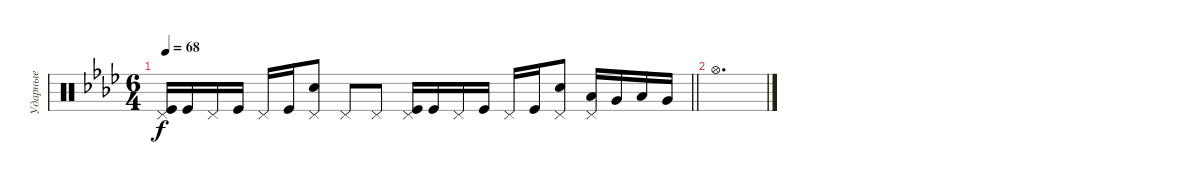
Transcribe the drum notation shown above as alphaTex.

\track ("Ударные" "Ударные") {instrument percussion}
\staff {score}
\articulation defaults
\ts (6 4)
\tempo 68
\clef neutral
\barLineRight lightlight
\ks fminor
("Kick (hit)" "Pedal Hi-Hat (hit)").16{dy f} "Kick (hit)".16 "Pedal Hi-Hat (hit)".16 "Kick (hit)".16 "Pedal Hi-Hat (hit)".16 "Kick (hit)".16 ("Snare (hit) 2" "Pedal Hi-Hat (hit)").8 "Pedal Hi-Hat (hit)".8 "Pedal Hi-Hat (hit)".8 ("Kick (hit)" "Pedal Hi-Hat (hit)").16 "Kick (hit)".16 "Pedal Hi-Hat (hit)".16 "Kick (hit)".16 "Pedal Hi-Hat (hit)".16 "Kick (hit)".16 ("Snare (hit) 2" "Pedal Hi-Hat (hit)").8 ("Low Floor Tom (hit)" "Pedal Hi-Hat (hit)").16 "Very Low Tom (hit)".16 "Low Tom (hit)".16 "Very Low Tom (hit)".16 |
"Hi-Hat (open)".1{d}
